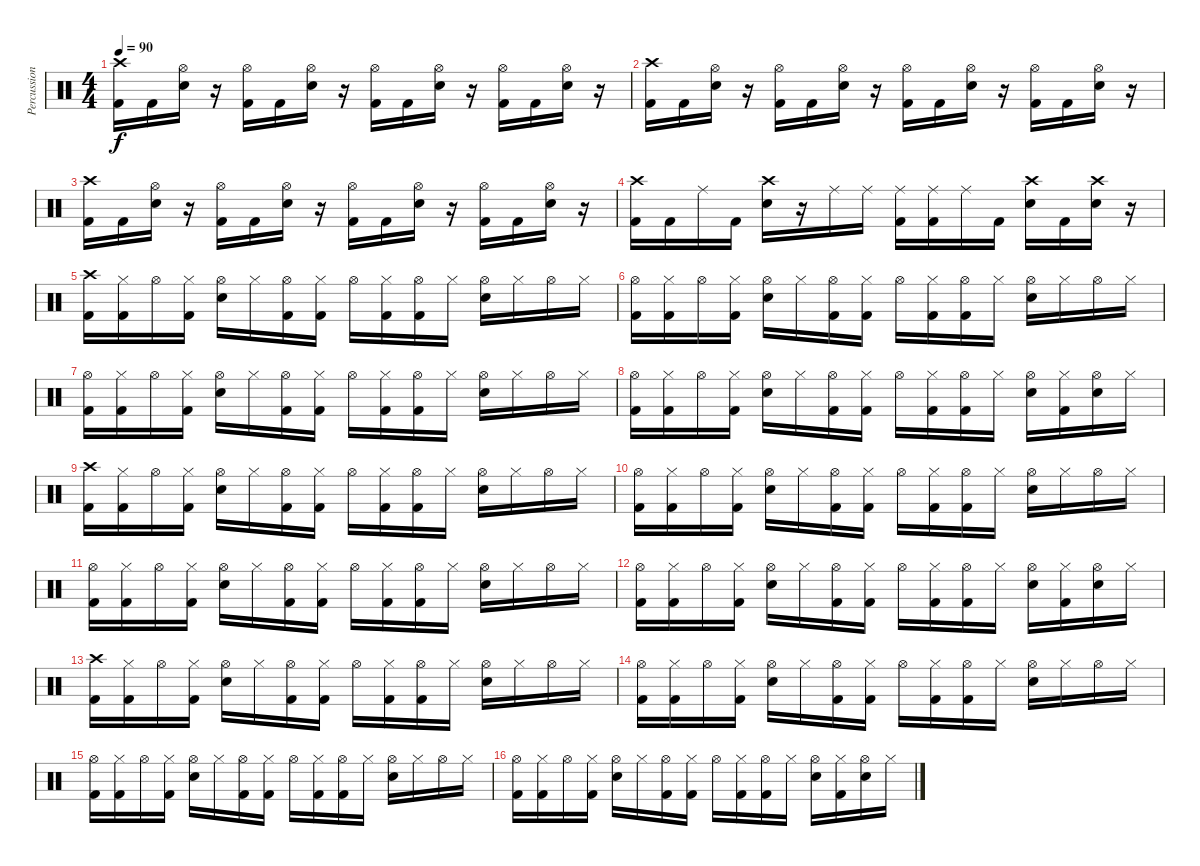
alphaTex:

\track ("Percussion" "Percussion") {instrument percussion}
\staff {score}
\articulation defaults
\ts (4 4)
\tempo 90
\clef neutral
\ks c
("Crash high (hit)" "Kick (hit) 2").16{dy f} "Kick (hit) 2".16 ("Hi-Hat (open)" "Snare (hit) 2").16 r.16 ("Hi-Hat (open)" "Kick (hit) 2").16 "Kick (hit) 2".16 ("Hi-Hat (open)" "Snare (hit) 2").16 r.16 ("Hi-Hat (open)" "Kick (hit) 2").16 "Kick (hit) 2".16 ("Hi-Hat (open)" "Snare (hit) 2").16 r.16 ("Hi-Hat (open)" "Kick (hit) 2").16 "Kick (hit) 2".16 ("Hi-Hat (open)" "Snare (hit) 2").16 r.16 |
("Crash high (hit)" "Kick (hit) 2").16 "Kick (hit) 2".16 ("Hi-Hat (open)" "Snare (hit) 2").16 r.16 ("Hi-Hat (open)" "Kick (hit) 2").16 "Kick (hit) 2".16 ("Hi-Hat (open)" "Snare (hit) 2").16 r.16 ("Hi-Hat (open)" "Kick (hit) 2").16 "Kick (hit) 2".16 ("Hi-Hat (open)" "Snare (hit) 2").16 r.16 ("Hi-Hat (open)" "Kick (hit) 2").16 "Kick (hit) 2".16 ("Hi-Hat (open)" "Snare (hit) 2").16 r.16 |
("Crash high (hit)" "Kick (hit) 2").16 "Kick (hit) 2".16 ("Hi-Hat (open)" "Snare (hit) 2").16 r.16 ("Hi-Hat (open)" "Kick (hit) 2").16 "Kick (hit) 2".16 ("Hi-Hat (open)" "Snare (hit) 2").16 r.16 ("Hi-Hat (open)" "Kick (hit) 2").16 "Kick (hit) 2".16 ("Hi-Hat (open)" "Snare (hit) 2").16 r.16 ("Hi-Hat (open)" "Kick (hit) 2").16 "Kick (hit) 2".16 ("Hi-Hat (open)" "Snare (hit) 2").16 r.16 |
("Crash high (hit)" "Kick (hit) 2").16 "Kick (hit) 2".16 "Ride (middle)".16 "Kick (hit) 2".16 ("Crash high (hit)" "Snare (hit) 2").16 r.16 "Ride (middle)".16 "Ride (middle)".16 ("Ride (middle)" "Kick (hit) 2").16 ("Ride (middle)" "Kick (hit) 2").16 "Ride (middle)".16 "Kick (hit) 2".16 ("Crash high (hit)" "Snare (hit) 2").16 "Kick (hit) 2".16 ("Crash high (hit)" "Snare (hit) 2").16 r.16 |
("Crash high (hit)" "Kick (hit) 2").16 ("Hi-Hat (closed)" "Kick (hit) 2").16 "Hi-Hat (open)".16 ("Hi-Hat (closed)" "Kick (hit) 2").16 ("Hi-Hat (open)" "Snare (hit) 2").16 "Hi-Hat (closed)".16 ("Hi-Hat (open)" "Kick (hit) 2").16 ("Hi-Hat (closed)" "Kick (hit) 2").16 "Hi-Hat (open)".16 ("Hi-Hat (closed)" "Kick (hit) 2").16 ("Hi-Hat (open)" "Kick (hit) 2").16 "Hi-Hat (closed)".16 ("Hi-Hat (open)" "Snare (hit) 2").16 "Hi-Hat (closed)".16 "Hi-Hat (open)".16 "Hi-Hat (closed)".16 |
("Hi-Hat (open)" "Kick (hit) 2").16 ("Hi-Hat (closed)" "Kick (hit) 2").16 "Hi-Hat (open)".16 ("Hi-Hat (closed)" "Kick (hit) 2").16 ("Hi-Hat (open)" "Snare (hit) 2").16 "Hi-Hat (closed)".16 ("Hi-Hat (open)" "Kick (hit) 2").16 ("Hi-Hat (closed)" "Kick (hit) 2").16 "Hi-Hat (open)".16 ("Hi-Hat (closed)" "Kick (hit) 2").16 ("Hi-Hat (open)" "Kick (hit) 2").16 "Hi-Hat (closed)".16 ("Hi-Hat (open)" "Snare (hit) 2").16 "Hi-Hat (closed)".16 "Hi-Hat (open)".16 "Hi-Hat (closed)".16 |
("Hi-Hat (open)" "Kick (hit) 2").16 ("Hi-Hat (closed)" "Kick (hit) 2").16 "Hi-Hat (open)".16 ("Hi-Hat (closed)" "Kick (hit) 2").16 ("Hi-Hat (open)" "Snare (hit) 2").16 "Hi-Hat (closed)".16 ("Hi-Hat (open)" "Kick (hit) 2").16 ("Hi-Hat (closed)" "Kick (hit) 2").16 "Hi-Hat (open)".16 ("Hi-Hat (closed)" "Kick (hit) 2").16 ("Hi-Hat (open)" "Kick (hit) 2").16 "Hi-Hat (closed)".16 ("Hi-Hat (open)" "Snare (hit) 2").16 "Hi-Hat (closed)".16 "Hi-Hat (open)".16 "Hi-Hat (closed)".16 |
("Hi-Hat (open)" "Kick (hit) 2").16 ("Hi-Hat (closed)" "Kick (hit) 2").16 "Hi-Hat (open)".16 ("Hi-Hat (closed)" "Kick (hit) 2").16 ("Hi-Hat (open)" "Snare (hit) 2").16 "Hi-Hat (closed)".16 ("Hi-Hat (open)" "Kick (hit) 2").16 ("Hi-Hat (closed)" "Kick (hit) 2").16 "Hi-Hat (open)".16 ("Hi-Hat (closed)" "Kick (hit) 2").16 ("Hi-Hat (open)" "Kick (hit) 2").16 "Hi-Hat (closed)".16 ("Hi-Hat (open)" "Snare (hit) 2").16 ("Hi-Hat (closed)" "Kick (hit) 2").16 ("Hi-Hat (open)" "Snare (hit) 2").16 "Hi-Hat (closed)".16 |
("Crash high (hit)" "Kick (hit) 2").16 ("Hi-Hat (closed)" "Kick (hit) 2").16 "Hi-Hat (open)".16 ("Hi-Hat (closed)" "Kick (hit) 2").16 ("Hi-Hat (open)" "Snare (hit) 2").16 "Hi-Hat (closed)".16 ("Hi-Hat (open)" "Kick (hit) 2").16 ("Hi-Hat (closed)" "Kick (hit) 2").16 "Hi-Hat (open)".16 ("Hi-Hat (closed)" "Kick (hit) 2").16 ("Hi-Hat (open)" "Kick (hit) 2").16 "Hi-Hat (closed)".16 ("Hi-Hat (open)" "Snare (hit) 2").16 "Hi-Hat (closed)".16 "Hi-Hat (open)".16 "Hi-Hat (closed)".16 |
("Hi-Hat (open)" "Kick (hit) 2").16 ("Hi-Hat (closed)" "Kick (hit) 2").16 "Hi-Hat (open)".16 ("Hi-Hat (closed)" "Kick (hit) 2").16 ("Hi-Hat (open)" "Snare (hit) 2").16 "Hi-Hat (closed)".16 ("Hi-Hat (open)" "Kick (hit) 2").16 ("Hi-Hat (closed)" "Kick (hit) 2").16 "Hi-Hat (open)".16 ("Hi-Hat (closed)" "Kick (hit) 2").16 ("Hi-Hat (open)" "Kick (hit) 2").16 "Hi-Hat (closed)".16 ("Hi-Hat (open)" "Snare (hit) 2").16 "Hi-Hat (closed)".16 "Hi-Hat (open)".16 "Hi-Hat (closed)".16 |
("Hi-Hat (open)" "Kick (hit) 2").16 ("Hi-Hat (closed)" "Kick (hit) 2").16 "Hi-Hat (open)".16 ("Hi-Hat (closed)" "Kick (hit) 2").16 ("Hi-Hat (open)" "Snare (hit) 2").16 "Hi-Hat (closed)".16 ("Hi-Hat (open)" "Kick (hit) 2").16 ("Hi-Hat (closed)" "Kick (hit) 2").16 "Hi-Hat (open)".16 ("Hi-Hat (closed)" "Kick (hit) 2").16 ("Hi-Hat (open)" "Kick (hit) 2").16 "Hi-Hat (closed)".16 ("Hi-Hat (open)" "Snare (hit) 2").16 "Hi-Hat (closed)".16 "Hi-Hat (open)".16 "Hi-Hat (closed)".16 |
("Hi-Hat (open)" "Kick (hit) 2").16 ("Hi-Hat (closed)" "Kick (hit) 2").16 "Hi-Hat (open)".16 ("Hi-Hat (closed)" "Kick (hit) 2").16 ("Hi-Hat (open)" "Snare (hit) 2").16 "Hi-Hat (closed)".16 ("Hi-Hat (open)" "Kick (hit) 2").16 ("Hi-Hat (closed)" "Kick (hit) 2").16 "Hi-Hat (open)".16 ("Hi-Hat (closed)" "Kick (hit) 2").16 ("Hi-Hat (open)" "Kick (hit) 2").16 "Hi-Hat (closed)".16 ("Hi-Hat (open)" "Snare (hit) 2").16 ("Hi-Hat (closed)" "Kick (hit) 2").16 ("Hi-Hat (open)" "Snare (hit) 2").16 "Hi-Hat (closed)".16 |
("Crash high (hit)" "Kick (hit) 2").16 ("Hi-Hat (closed)" "Kick (hit) 2").16 "Hi-Hat (open)".16 ("Hi-Hat (closed)" "Kick (hit) 2").16 ("Hi-Hat (open)" "Snare (hit) 2").16 "Hi-Hat (closed)".16 ("Hi-Hat (open)" "Kick (hit) 2").16 ("Hi-Hat (closed)" "Kick (hit) 2").16 "Hi-Hat (open)".16 ("Hi-Hat (closed)" "Kick (hit) 2").16 ("Hi-Hat (open)" "Kick (hit) 2").16 "Hi-Hat (closed)".16 ("Hi-Hat (open)" "Snare (hit) 2").16 "Hi-Hat (closed)".16 "Hi-Hat (open)".16 "Hi-Hat (closed)".16 |
("Hi-Hat (open)" "Kick (hit) 2").16 ("Hi-Hat (closed)" "Kick (hit) 2").16 "Hi-Hat (open)".16 ("Hi-Hat (closed)" "Kick (hit) 2").16 ("Hi-Hat (open)" "Snare (hit) 2").16 "Hi-Hat (closed)".16 ("Hi-Hat (open)" "Kick (hit) 2").16 ("Hi-Hat (closed)" "Kick (hit) 2").16 "Hi-Hat (open)".16 ("Hi-Hat (closed)" "Kick (hit) 2").16 ("Hi-Hat (open)" "Kick (hit) 2").16 "Hi-Hat (closed)".16 ("Hi-Hat (open)" "Snare (hit) 2").16 "Hi-Hat (closed)".16 "Hi-Hat (open)".16 "Hi-Hat (closed)".16 |
("Hi-Hat (open)" "Kick (hit) 2").16 ("Hi-Hat (closed)" "Kick (hit) 2").16 "Hi-Hat (open)".16 ("Hi-Hat (closed)" "Kick (hit) 2").16 ("Hi-Hat (open)" "Snare (hit) 2").16 "Hi-Hat (closed)".16 ("Hi-Hat (open)" "Kick (hit) 2").16 ("Hi-Hat (closed)" "Kick (hit) 2").16 "Hi-Hat (open)".16 ("Hi-Hat (closed)" "Kick (hit) 2").16 ("Hi-Hat (open)" "Kick (hit) 2").16 "Hi-Hat (closed)".16 ("Hi-Hat (open)" "Snare (hit) 2").16 "Hi-Hat (closed)".16 "Hi-Hat (open)".16 "Hi-Hat (closed)".16 |
("Hi-Hat (open)" "Kick (hit) 2").16 ("Hi-Hat (closed)" "Kick (hit) 2").16 "Hi-Hat (open)".16 ("Hi-Hat (closed)" "Kick (hit) 2").16 ("Hi-Hat (open)" "Snare (hit) 2").16 "Hi-Hat (closed)".16 ("Hi-Hat (open)" "Kick (hit) 2").16 ("Hi-Hat (closed)" "Kick (hit) 2").16 "Hi-Hat (open)".16 ("Hi-Hat (closed)" "Kick (hit) 2").16 ("Hi-Hat (open)" "Kick (hit) 2").16 "Hi-Hat (closed)".16 ("Hi-Hat (open)" "Snare (hit) 2").16 ("Hi-Hat (closed)" "Kick (hit) 2").16 ("Hi-Hat (open)" "Snare (hit) 2").16 "Hi-Hat (closed)".16
